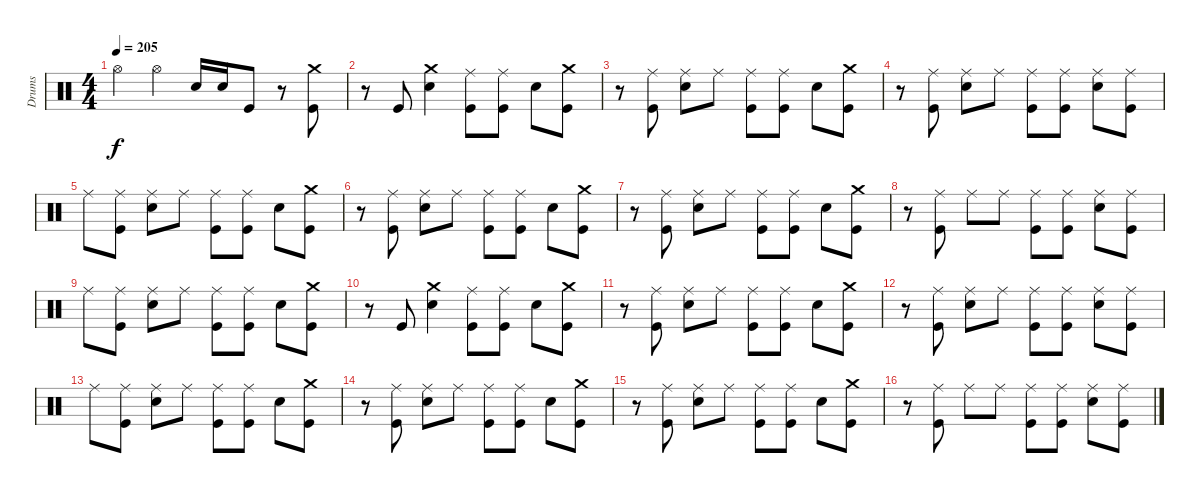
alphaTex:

\track ("Drums" "Drums") {instrument percussion}
\staff {score}
\articulation defaults
\ts (4 4)
\tempo 205
\clef neutral
\ks c "Hi-Hat (open)".4{dy f} "Hi-Hat (open)".4 "Electric Snare (hit)".16 "Electric Snare (hit)".16 "Kick (hit)".8
r.8 ("Crash medium (hit)" "Kick (hit)").8 |
r.8 "Kick (hit)".8 ("Crash medium (hit)" "Electric Snare (hit)").4 ("Ride (middle)" "Kick (hit)").8 ("Ride (middle)" "Kick (hit)").8 "Electric Snare (hit)".8 ("Crash medium (hit)" "Kick (hit)").8 |
r.8 ("Ride (middle)" "Kick (hit)").8 ("Ride (middle)" "Electric Snare (hit)").8 "Ride (middle)".8 ("Ride (middle)" "Kick (hit)").8 ("Ride (middle)" "Kick (hit)").8 "Electric Snare (hit)".8 ("Crash medium (hit)" "Kick (hit)").8 |
r.8 ("Ride (middle)" "Kick (hit)").8 ("Ride (middle)" "Electric Snare (hit)").8 "Ride (middle)".8 ("Ride (middle)" "Kick (hit)").8 ("Ride (middle)" "Kick (hit)").8 ("Ride (middle)" "Electric Snare (hit)").8 ("Ride (middle)" "Kick (hit)").8 |
"Ride (middle)".8 ("Ride (middle)" "Kick (hit)").8 ("Ride (middle)" "Electric Snare (hit)").8 "Ride (middle)".8 ("Ride (middle)" "Kick (hit)").8 ("Ride (middle)" "Kick (hit)").8 "Electric Snare (hit)".8 ("Crash medium (hit)" "Kick (hit)").8 |
r.8 ("Ride (middle)" "Kick (hit)").8 ("Ride (middle)" "Electric Snare (hit)").8 "Ride (middle)".8 ("Ride (middle)" "Kick (hit)").8 ("Ride (middle)" "Kick (hit)").8 "Electric Snare (hit)".8 ("Crash medium (hit)" "Kick (hit)").8 |
r.8 ("Ride (middle)" "Kick (hit)").8 ("Ride (middle)" "Electric Snare (hit)").8 "Ride (middle)".8 ("Ride (middle)" "Kick (hit)").8 ("Ride (middle)" "Kick (hit)").8 "Electric Snare (hit)".8 ("Crash medium (hit)" "Kick (hit)").8 |
r.8 ("Ride (middle)" "Kick (hit)").8 "Ride (middle)".8 "Ride (middle)".8 ("Ride (middle)" "Kick (hit)").8 ("Ride (middle)" "Kick (hit)").8 ("Ride (middle)" "Electric Snare (hit)").8 ("Ride (middle)" "Kick (hit)").8 |
"Ride (middle)".8 ("Ride (middle)" "Kick (hit)").8 ("Ride (middle)" "Electric Snare (hit)").8 "Ride (middle)".8 ("Ride (middle)" "Kick (hit)").8 ("Ride (middle)" "Kick (hit)").8 "Electric Snare (hit)".8 ("Crash medium (hit)" "Kick (hit)").8 |
r.8 "Kick (hit)".8 ("Crash medium (hit)" "Electric Snare (hit)").4 ("Ride (middle)" "Kick (hit)").8 ("Ride (middle)" "Kick (hit)").8 "Electric Snare (hit)".8 ("Crash medium (hit)" "Kick (hit)").8 |
r.8 ("Ride (middle)" "Kick (hit)").8 ("Ride (middle)" "Electric Snare (hit)").8 "Ride (middle)".8 ("Ride (middle)" "Kick (hit)").8 ("Ride (middle)" "Kick (hit)").8 "Electric Snare (hit)".8 ("Crash medium (hit)" "Kick (hit)").8 |
r.8 ("Ride (middle)" "Kick (hit)").8 ("Ride (middle)" "Electric Snare (hit)").8 "Ride (middle)".8 ("Ride (middle)" "Kick (hit)").8 ("Ride (middle)" "Kick (hit)").8 ("Ride (middle)" "Electric Snare (hit)").8 ("Ride (middle)" "Kick (hit)").8 |
"Ride (middle)".8 ("Ride (middle)" "Kick (hit)").8 ("Ride (middle)" "Electric Snare (hit)").8 "Ride (middle)".8 ("Ride (middle)" "Kick (hit)").8 ("Ride (middle)" "Kick (hit)").8 "Electric Snare (hit)".8 ("Crash medium (hit)" "Kick (hit)").8 |
r.8 ("Ride (middle)" "Kick (hit)").8 ("Ride (middle)" "Electric Snare (hit)").8 "Ride (middle)".8 ("Ride (middle)" "Kick (hit)").8 ("Ride (middle)" "Kick (hit)").8 "Electric Snare (hit)".8 ("Crash medium (hit)" "Kick (hit)").8 |
r.8 ("Ride (middle)" "Kick (hit)").8 ("Ride (middle)" "Electric Snare (hit)").8 "Ride (middle)".8 ("Ride (middle)" "Kick (hit)").8 ("Ride (middle)" "Kick (hit)").8 "Electric Snare (hit)".8 ("Crash medium (hit)" "Kick (hit)").8 |
r.8 ("Ride (middle)" "Kick (hit)").8 "Ride (middle)".8 "Ride (middle)".8 ("Ride (middle)" "Kick (hit)").8 ("Ride (middle)" "Kick (hit)").8 ("Ride (middle)" "Electric Snare (hit)").8 ("Ride (middle)" "Kick (hit)").8
